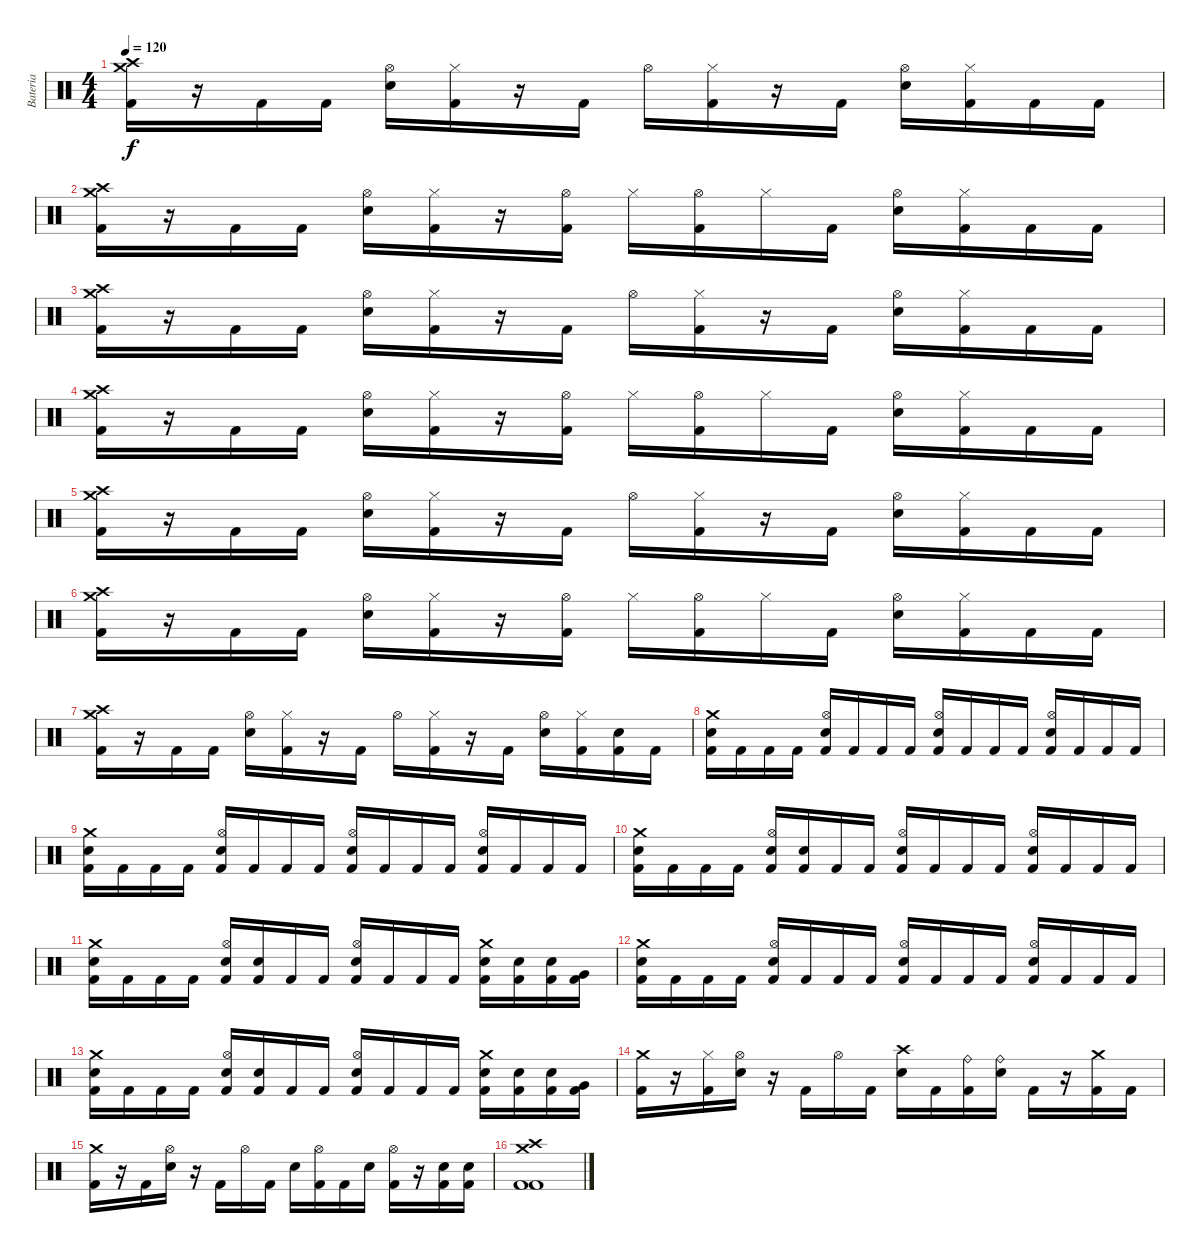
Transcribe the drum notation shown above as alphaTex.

\track ("Bateria" "Bateria") {instrument percussion}
\staff {score}
\articulation defaults
\ts (4 4)
\tempo 120
\clef neutral
\ks c
("Crash medium (hit)" "Crash high (hit)" "Kick (hit) 2").16{dy f} r.16 "Kick (hit) 2".16 "Kick (hit) 2".16 ("Hi-Hat (open)" "Electric Snare (hit)").16 ("Hi-Hat (closed)" "Kick (hit) 2").16 r.16 "Kick (hit) 2".16 "Hi-Hat (open)".16 ("Hi-Hat (closed)" "Kick (hit) 2").16 r.16 "Kick (hit) 2".16 ("Hi-Hat (open)" "Electric Snare (hit)").16 ("Hi-Hat (closed)" "Kick (hit) 2").16 "Kick (hit) 2".16 "Kick (hit) 2".16 |
("Crash medium (hit)" "Crash high (hit)" "Kick (hit) 2").16 r.16 "Kick (hit) 2".16 "Kick (hit) 2".16 ("Hi-Hat (open)" "Electric Snare (hit)").16 ("Hi-Hat (closed)" "Kick (hit) 2").16 r.16 ("Hi-Hat (open)" "Kick (hit) 2").16 "Hi-Hat (closed)".16 ("Hi-Hat (open)" "Kick (hit) 2").16 "Hi-Hat (closed)".16 "Kick (hit) 2".16 ("Hi-Hat (open)" "Electric Snare (hit)").16 ("Hi-Hat (closed)" "Kick (hit) 2").16 "Kick (hit) 2".16 "Kick (hit) 2".16 |
("Crash medium (hit)" "Crash high (hit)" "Kick (hit) 2").16 r.16 "Kick (hit) 2".16 "Kick (hit) 2".16 ("Hi-Hat (open)" "Electric Snare (hit)").16 ("Hi-Hat (closed)" "Kick (hit) 2").16 r.16 "Kick (hit) 2".16 "Hi-Hat (open)".16 ("Hi-Hat (closed)" "Kick (hit) 2").16 r.16 "Kick (hit) 2".16 ("Hi-Hat (open)" "Electric Snare (hit)").16 ("Hi-Hat (closed)" "Kick (hit) 2").16 "Kick (hit) 2".16 "Kick (hit) 2".16 |
("Crash medium (hit)" "Crash high (hit)" "Kick (hit) 2").16 r.16 "Kick (hit) 2".16 "Kick (hit) 2".16 ("Hi-Hat (open)" "Electric Snare (hit)").16 ("Hi-Hat (closed)" "Kick (hit) 2").16 r.16 ("Hi-Hat (open)" "Kick (hit) 2").16 "Hi-Hat (closed)".16 ("Hi-Hat (open)" "Kick (hit) 2").16 "Hi-Hat (closed)".16 "Kick (hit) 2".16 ("Hi-Hat (open)" "Electric Snare (hit)").16 ("Hi-Hat (closed)" "Kick (hit) 2").16 "Kick (hit) 2".16 "Kick (hit) 2".16 |
("Crash medium (hit)" "Crash high (hit)" "Kick (hit) 2").16 r.16 "Kick (hit) 2".16 "Kick (hit) 2".16 ("Hi-Hat (open)" "Electric Snare (hit)").16 ("Hi-Hat (closed)" "Kick (hit) 2").16 r.16 "Kick (hit) 2".16 "Hi-Hat (open)".16 ("Hi-Hat (closed)" "Kick (hit) 2").16 r.16 "Kick (hit) 2".16 ("Hi-Hat (open)" "Electric Snare (hit)").16 ("Hi-Hat (closed)" "Kick (hit) 2").16 "Kick (hit) 2".16 "Kick (hit) 2".16 |
("Crash medium (hit)" "Crash high (hit)" "Kick (hit) 2").16 r.16 "Kick (hit) 2".16 "Kick (hit) 2".16 ("Hi-Hat (open)" "Electric Snare (hit)").16 ("Hi-Hat (closed)" "Kick (hit) 2").16 r.16 ("Hi-Hat (open)" "Kick (hit) 2").16 "Hi-Hat (closed)".16 ("Hi-Hat (open)" "Kick (hit) 2").16 "Hi-Hat (closed)".16 "Kick (hit) 2".16 ("Hi-Hat (open)" "Electric Snare (hit)").16 ("Hi-Hat (closed)" "Kick (hit) 2").16 "Kick (hit) 2".16 "Kick (hit) 2".16 |
("Crash medium (hit)" "Crash high (hit)" "Kick (hit) 2").16 r.16 "Kick (hit) 2".16 "Kick (hit) 2".16 ("Hi-Hat (open)" "Electric Snare (hit)").16 ("Hi-Hat (closed)" "Kick (hit) 2").16 r.16 "Kick (hit) 2".16 "Hi-Hat (open)".16 ("Hi-Hat (closed)" "Kick (hit) 2").16 r.16 "Kick (hit) 2".16 ("Hi-Hat (open)" "Electric Snare (hit)").16 ("Hi-Hat (closed)" "Kick (hit) 2").16 ("Electric Snare (hit)" "Kick (hit) 2").16 "Kick (hit) 2".16 |
("Crash medium (hit)" "Electric Snare (hit)" "Kick (hit) 2").16 "Kick (hit) 2".16 "Kick (hit) 2".16 "Kick (hit) 2".16 ("Hi-Hat (open)" "Electric Snare (hit)" "Kick (hit) 2").16 "Kick (hit) 2".16 "Kick (hit) 2".16 "Kick (hit) 2".16 ("Hi-Hat (open)" "Electric Snare (hit)" "Kick (hit) 2").16 "Kick (hit) 2".16 "Kick (hit) 2".16 "Kick (hit) 2".16 ("Hi-Hat (open)" "Electric Snare (hit)" "Kick (hit) 2").16 "Kick (hit) 2".16 "Kick (hit) 2".16 "Kick (hit) 2".16 |
("Crash medium (hit)" "Electric Snare (hit)" "Kick (hit) 2").16 "Kick (hit) 2".16 "Kick (hit) 2".16 "Kick (hit) 2".16 ("Hi-Hat (open)" "Electric Snare (hit)" "Kick (hit) 2").16 "Kick (hit) 2".16 "Kick (hit) 2".16 "Kick (hit) 2".16 ("Hi-Hat (open)" "Electric Snare (hit)" "Kick (hit) 2").16 "Kick (hit) 2".16 "Kick (hit) 2".16 "Kick (hit) 2".16 ("Hi-Hat (open)" "Electric Snare (hit)" "Kick (hit) 2").16 "Kick (hit) 2".16 "Kick (hit) 2".16 "Kick (hit) 2".16 |
("Crash medium (hit)" "Electric Snare (hit)" "Kick (hit) 2").16 "Kick (hit) 2".16 "Kick (hit) 2".16 "Kick (hit) 2".16 ("Hi-Hat (open)" "Electric Snare (hit)" "Kick (hit) 2").16 ("Electric Snare (hit)" "Kick (hit) 2").16 "Kick (hit) 2".16 "Kick (hit) 2".16 ("Hi-Hat (open)" "Electric Snare (hit)" "Kick (hit) 2").16 "Kick (hit) 2".16 "Kick (hit) 2".16 "Kick (hit) 2".16 ("Hi-Hat (open)" "Electric Snare (hit)" "Kick (hit) 2").16 "Kick (hit) 2".16 "Kick (hit) 2".16 "Kick (hit) 2".16 |
("Crash medium (hit)" "Electric Snare (hit)" "Kick (hit) 2").16 "Kick (hit) 2".16 "Kick (hit) 2".16 "Kick (hit) 2".16 ("Hi-Hat (open)" "Electric Snare (hit)" "Kick (hit) 2").16 ("Electric Snare (hit)" "Kick (hit) 2").16 "Kick (hit) 2".16 "Kick (hit) 2".16 ("Hi-Hat (open)" "Electric Snare (hit)" "Kick (hit) 2").16 "Kick (hit) 2".16 "Kick (hit) 2".16 "Kick (hit) 2".16 ("Crash medium (hit)" "Electric Snare (hit)" "Kick (hit) 2").16 ("Electric Snare (hit)" "Kick (hit) 2").16 ("Electric Snare (hit)" "Kick (hit) 2").16 ("Very Low Tom (hit)" "Kick (hit) 2").16 |
("Crash medium (hit)" "Electric Snare (hit)" "Kick (hit) 2").16 "Kick (hit) 2".16 "Kick (hit) 2".16 "Kick (hit) 2".16 ("Hi-Hat (open)" "Electric Snare (hit)" "Kick (hit) 2").16 "Kick (hit) 2".16 "Kick (hit) 2".16 "Kick (hit) 2".16 ("Hi-Hat (open)" "Electric Snare (hit)" "Kick (hit) 2").16 "Kick (hit) 2".16 "Kick (hit) 2".16 "Kick (hit) 2".16 ("Hi-Hat (open)" "Electric Snare (hit)" "Kick (hit) 2").16 "Kick (hit) 2".16 "Kick (hit) 2".16 "Kick (hit) 2".16 |
("Crash medium (hit)" "Electric Snare (hit)" "Kick (hit) 2").16 "Kick (hit) 2".16 "Kick (hit) 2".16 "Kick (hit) 2".16 ("Hi-Hat (open)" "Electric Snare (hit)" "Kick (hit) 2").16 ("Electric Snare (hit)" "Kick (hit) 2").16 "Kick (hit) 2".16 "Kick (hit) 2".16 ("Hi-Hat (open)" "Electric Snare (hit)" "Kick (hit) 2").16 "Kick (hit) 2".16 "Kick (hit) 2".16 "Kick (hit) 2".16 ("Crash medium (hit)" "Electric Snare (hit)" "Kick (hit) 2").16 ("Electric Snare (hit)" "Kick (hit) 2").16 ("Electric Snare (hit)" "Kick (hit) 2").16 ("Very Low Tom (hit)" "Kick (hit) 2").16 |
("Crash medium (hit)" "Kick (hit) 2").16 r.16 ("Hi-Hat (closed)" "Kick (hit) 2").16 ("Hi-Hat (open)" "Electric Snare (hit)").16 r.16 "Kick (hit) 2".16 "Hi-Hat (open)".16 "Kick (hit) 2".16 ("Crash high (hit)" "Electric Snare (hit)").16 "Kick (hit) 2".16 ("Ride (bell)" "Kick (hit) 2").16 ("Ride (bell)" "Electric Snare (hit)").16 "Kick (hit) 2".16 r.16 ("Crash medium (hit)" "Kick (hit) 2").16 "Kick (hit) 2".16 |
("Crash medium (hit)" "Kick (hit) 2").16 r.16 "Kick (hit) 2".16 ("Hi-Hat (open)" "Electric Snare (hit)").16 r.16 "Kick (hit) 2".16 "Hi-Hat (open)".16 "Kick (hit) 2".16 "Electric Snare (hit)".16 ("Hi-Hat (open)" "Kick (hit) 2").16 "Kick (hit) 2".16 "Electric Snare (hit)".16 ("Hi-Hat (open)" "Kick (hit) 2").16 r.16 ("Electric Snare (hit)" "Kick (hit) 2").16 ("Electric Snare (hit)" "Kick (hit) 2").16 |
("Crash medium (hit)" "Crash high (hit)" "Kick (hit) 2" "Kick (hit) 2").1
